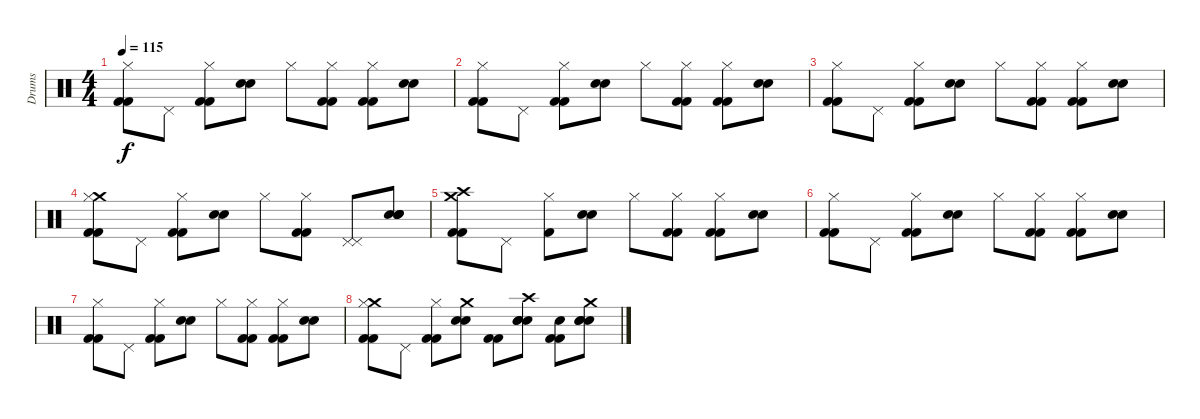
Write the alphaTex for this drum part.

\track ("Drums" "Drums") {instrument percussion}
\staff {score}
\articulation defaults
\ts (4 4)
\tempo 115
\clef neutral
\ks c
("Hi-Hat (closed)" "Kick (hit) 2" "Kick (hit) 2").8{dy f} "Pedal Hi-Hat (hit)".8 ("Hi-Hat (closed)" "Kick (hit) 2" "Kick (hit) 2").8 ("Snare (hit) 2" "Snare (hit) 2").8 "Hi-Hat (closed)".8 ("Hi-Hat (closed)" "Kick (hit) 2" "Kick (hit) 2").8 ("Hi-Hat (closed)" "Kick (hit) 2" "Kick (hit) 2").8 ("Snare (hit) 2" "Snare (hit) 2").8 |
("Hi-Hat (closed)" "Kick (hit) 2" "Kick (hit) 2").8 "Pedal Hi-Hat (hit)".8 ("Hi-Hat (closed)" "Kick (hit) 2" "Kick (hit) 2").8 ("Snare (hit) 2" "Snare (hit) 2").8 "Hi-Hat (closed)".8 ("Hi-Hat (closed)" "Kick (hit) 2" "Kick (hit) 2").8 ("Hi-Hat (closed)" "Kick (hit) 2" "Kick (hit) 2").8 ("Snare (hit) 2" "Snare (hit) 2").8 |
("Hi-Hat (closed)" "Kick (hit) 2" "Kick (hit) 2").8 "Pedal Hi-Hat (hit)".8 ("Hi-Hat (closed)" "Kick (hit) 2" "Kick (hit) 2").8 ("Snare (hit) 2" "Snare (hit) 2").8 "Hi-Hat (closed)".8 ("Hi-Hat (closed)" "Kick (hit) 2" "Kick (hit) 2").8 ("Hi-Hat (closed)" "Kick (hit) 2" "Kick (hit) 2").8 ("Snare (hit) 2" "Snare (hit) 2").8 |
("Crash medium (hit)" "Hi-Hat (closed)" "Kick (hit) 2" "Kick (hit) 2").8 "Pedal Hi-Hat (hit)".8 ("Hi-Hat (closed)" "Kick (hit) 2" "Kick (hit) 2").8 ("Snare (hit) 2" "Snare (hit) 2").8 "Hi-Hat (closed)".8 ("Hi-Hat (closed)" "Kick (hit) 2" "Kick (hit) 2").8 ("Pedal Hi-Hat (hit)" "Pedal Hi-Hat (hit)").8 ("Snare (hit) 2" "Snare (hit) 2" "Snare (hit) 2" "Snare (hit) 2").8 |
("Crash medium (hit)" "Crash high (hit)" "Kick (hit) 2" "Kick (hit) 2").8 "Pedal Hi-Hat (hit)".8 ("Hi-Hat (closed)" "Kick (hit) 2").8 ("Snare (hit) 2" "Snare (hit) 2").8 "Hi-Hat (closed)".8 ("Hi-Hat (closed)" "Kick (hit) 2" "Kick (hit) 2").8 ("Hi-Hat (closed)" "Kick (hit) 2" "Kick (hit) 2").8 ("Snare (hit) 2" "Snare (hit) 2").8 |
("Hi-Hat (closed)" "Kick (hit) 2" "Kick (hit) 2").8 "Pedal Hi-Hat (hit)".8 ("Hi-Hat (closed)" "Kick (hit) 2" "Kick (hit) 2").8 ("Snare (hit) 2" "Snare (hit) 2").8 "Hi-Hat (closed)".8 ("Hi-Hat (closed)" "Kick (hit) 2" "Kick (hit) 2").8 ("Hi-Hat (closed)" "Kick (hit) 2" "Kick (hit) 2").8 ("Snare (hit) 2" "Snare (hit) 2").8 |
("Hi-Hat (closed)" "Kick (hit) 2" "Kick (hit) 2").8 "Pedal Hi-Hat (hit)".8 ("Hi-Hat (closed)" "Kick (hit) 2" "Kick (hit) 2").8 ("Snare (hit) 2" "Snare (hit) 2").8 "Hi-Hat (closed)".8 ("Hi-Hat (closed)" "Kick (hit) 2" "Kick (hit) 2").8 ("Hi-Hat (closed)" "Kick (hit) 2" "Kick (hit) 2").8 ("Snare (hit) 2" "Snare (hit) 2").8 |
("Crash medium (hit)" "Hi-Hat (closed)" "Kick (hit) 2" "Kick (hit) 2").8 "Pedal Hi-Hat (hit)".8 ("Hi-Hat (closed)" "Kick (hit) 2" "Kick (hit) 2").8 ("Crash medium (hit)" "Snare (hit) 2" "Snare (hit) 2").8 ("Kick (hit) 2" "Kick (hit) 2").8 ("Crash high (hit)" "Snare (hit) 2" "Snare (hit) 2" "Snare (hit) 2").8 ("Snare (hit) 2" "Kick (hit) 2" "Kick (hit) 2").8 ("Crash medium (hit)" "Snare (hit) 2" "Snare (hit) 2" "Snare (hit) 2").8
